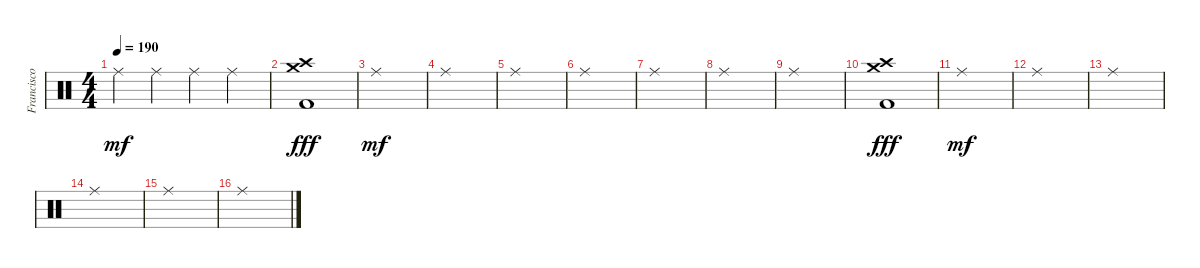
\track ("Francisco Izquierdo (Percusión)" "Francisco ") {instrument percussion}
\staff {score}
\articulation defaults
\ts (4 4)
\tempo 190
\clef neutral
\ks c "Ride (middle)".4{dy mf} "Ride (middle)".4 "Ride (middle)".4 "Ride (middle)".4
|
("Crash high (hit)" "Crash medium (hit)" "Kick (hit) 2").1{dy fff} |
"Ride (middle)".1{dy mf} |
"Ride (middle)".1 |
"Ride (middle)".1 |
"Ride (middle)".1 |
"Ride (middle)".1 |
"Ride (middle)".1 |
"Ride (middle)".1 |
("Crash high (hit)" "Crash medium (hit)" "Kick (hit) 2").1{dy fff} |
"Ride (middle)".1{dy mf} |
"Ride (middle)".1 |
"Ride (middle)".1 |
"Ride (middle)".1 |
"Ride (middle)".1 |
"Ride (middle)".1
